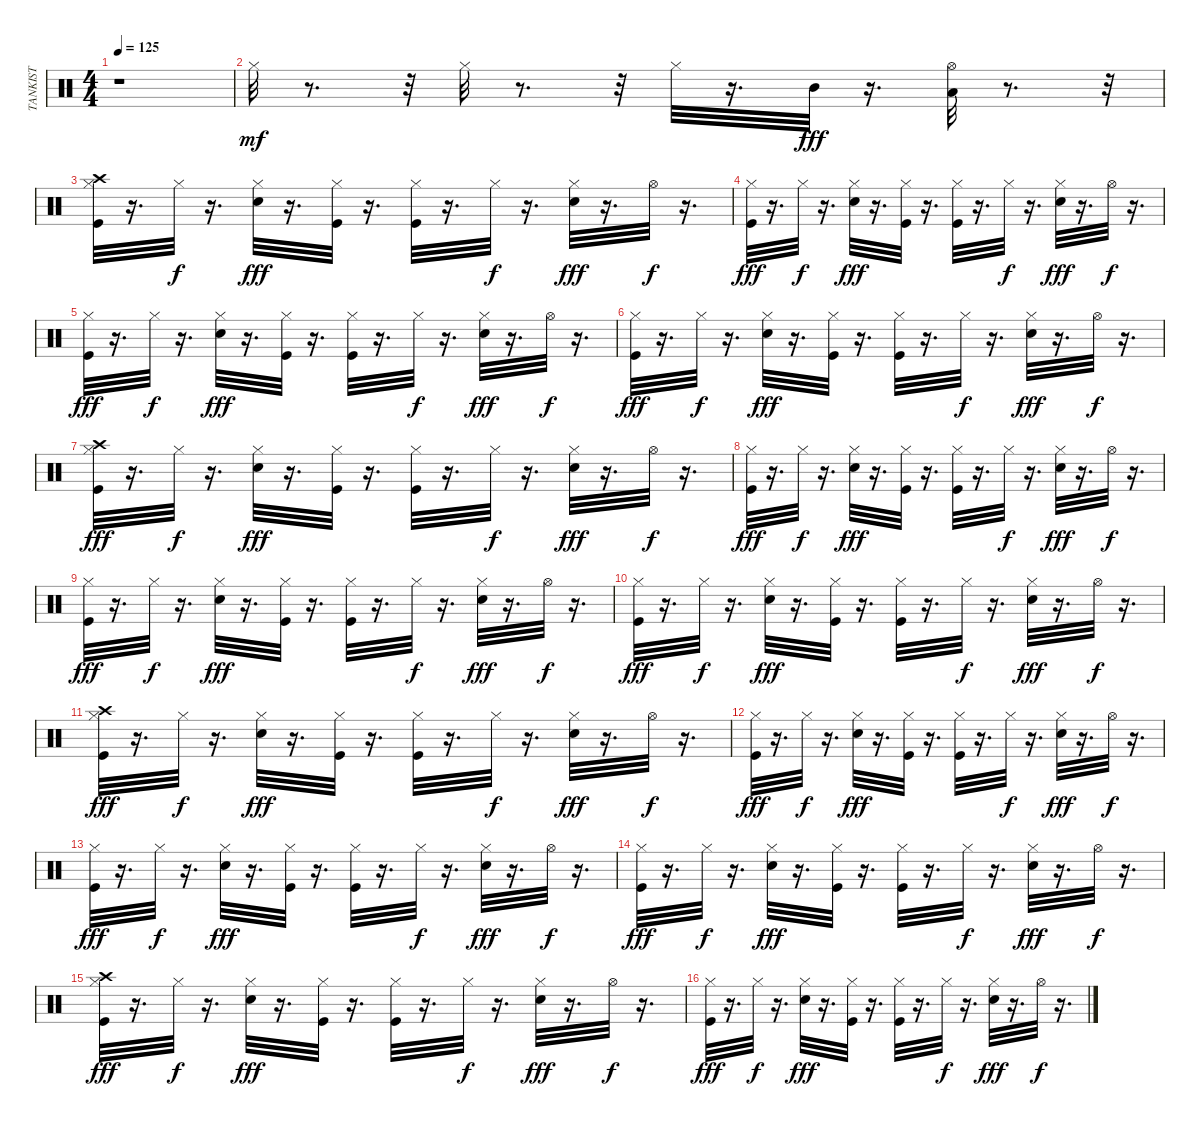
\track ("TANKIST" "TANKIST") {instrument percussion}
\staff {score}
\articulation defaults
\ts (4 4)
\tempo 125
\clef neutral
\ks c
r.1{dy mf} |
"Hi-Hat (closed)".32 r.8{d} r.32 "Hi-Hat (closed)".32 r.8{d} r.32 "Hi-Hat (closed)".32 r.16{d} "Mid Tom (hit)".32{dy fff} r.16{d} ("Hi-Hat (open)" "Low Tom (hit)").32 r.8{d} r.32 |
("Crash high (hit)" "Hi-Hat (closed)" "Kick (hit)").32 r.16{d} "Hi-Hat (closed)".32{dy f} r.16{d} ("Hi-Hat (closed)" "Electric Snare (hit)").32{dy fff} r.16{d} ("Hi-Hat (closed)" "Kick (hit)").32 r.16{d} ("Hi-Hat (closed)" "Kick (hit)").32 r.16{d} "Hi-Hat (closed)".32{dy f} r.16{d} ("Hi-Hat (closed)" "Electric Snare (hit)").32{dy fff} r.16{d} "Hi-Hat (open)".32{dy f} r.16{d} |
("Kick (hit)" "Hi-Hat (closed)").32{dy fff} r.16{d} "Hi-Hat (closed)".32{dy f} r.16{d} ("Electric Snare (hit)" "Hi-Hat (closed)").32{dy fff} r.16{d} ("Kick (hit)" "Hi-Hat (closed)").32 r.16{d} ("Kick (hit)" "Hi-Hat (closed)").32 r.16{d} "Hi-Hat (closed)".32{dy f} r.16{d} ("Electric Snare (hit)" "Hi-Hat (closed)").32{dy fff} r.16{d} "Hi-Hat (open)".32{dy f} r.16{d} |
("Hi-Hat (closed)" "Kick (hit)").32{dy fff} r.16{d} "Hi-Hat (closed)".32{dy f} r.16{d} ("Hi-Hat (closed)" "Electric Snare (hit)").32{dy fff} r.16{d} ("Hi-Hat (closed)" "Kick (hit)").32 r.16{d} ("Hi-Hat (closed)" "Kick (hit)").32 r.16{d} "Hi-Hat (closed)".32{dy f} r.16{d} ("Hi-Hat (closed)" "Electric Snare (hit)").32{dy fff} r.16{d} "Hi-Hat (open)".32{dy f} r.16{d} |
("Kick (hit)" "Hi-Hat (closed)").32{dy fff} r.16{d} "Hi-Hat (closed)".32{dy f} r.16{d} ("Electric Snare (hit)" "Hi-Hat (closed)").32{dy fff} r.16{d} ("Kick (hit)" "Hi-Hat (closed)").32 r.16{d} ("Kick (hit)" "Hi-Hat (closed)").32 r.16{d} "Hi-Hat (closed)".32{dy f} r.16{d} ("Electric Snare (hit)" "Hi-Hat (closed)").32{dy fff} r.16{d} "Hi-Hat (open)".32{dy f} r.16{d} |
("Crash high (hit)" "Hi-Hat (closed)" "Kick (hit)").32{dy fff} r.16{d} "Hi-Hat (closed)".32{dy f} r.16{d} ("Hi-Hat (closed)" "Electric Snare (hit)").32{dy fff} r.16{d} ("Hi-Hat (closed)" "Kick (hit)").32 r.16{d} ("Hi-Hat (closed)" "Kick (hit)").32 r.16{d} "Hi-Hat (closed)".32{dy f} r.16{d} ("Hi-Hat (closed)" "Electric Snare (hit)").32{dy fff} r.16{d} "Hi-Hat (open)".32{dy f} r.16{d} |
("Kick (hit)" "Hi-Hat (closed)").32{dy fff} r.16{d} "Hi-Hat (closed)".32{dy f} r.16{d} ("Electric Snare (hit)" "Hi-Hat (closed)").32{dy fff} r.16{d} ("Kick (hit)" "Hi-Hat (closed)").32 r.16{d} ("Kick (hit)" "Hi-Hat (closed)").32 r.16{d} "Hi-Hat (closed)".32{dy f} r.16{d} ("Electric Snare (hit)" "Hi-Hat (closed)").32{dy fff} r.16{d} "Hi-Hat (open)".32{dy f} r.16{d} |
("Hi-Hat (closed)" "Kick (hit)").32{dy fff} r.16{d} "Hi-Hat (closed)".32{dy f} r.16{d} ("Hi-Hat (closed)" "Electric Snare (hit)").32{dy fff} r.16{d} ("Hi-Hat (closed)" "Kick (hit)").32 r.16{d} ("Hi-Hat (closed)" "Kick (hit)").32 r.16{d} "Hi-Hat (closed)".32{dy f} r.16{d} ("Hi-Hat (closed)" "Electric Snare (hit)").32{dy fff} r.16{d} "Hi-Hat (open)".32{dy f} r.16{d} |
("Kick (hit)" "Hi-Hat (closed)").32{dy fff} r.16{d} "Hi-Hat (closed)".32{dy f} r.16{d} ("Electric Snare (hit)" "Hi-Hat (closed)").32{dy fff} r.16{d} ("Kick (hit)" "Hi-Hat (closed)").32 r.16{d} ("Kick (hit)" "Hi-Hat (closed)").32 r.16{d} "Hi-Hat (closed)".32{dy f} r.16{d} ("Electric Snare (hit)" "Hi-Hat (closed)").32{dy fff} r.16{d} "Hi-Hat (open)".32{dy f} r.16{d} |
("Crash high (hit)" "Hi-Hat (closed)" "Kick (hit)").32{dy fff} r.16{d} "Hi-Hat (closed)".32{dy f} r.16{d} ("Hi-Hat (closed)" "Electric Snare (hit)").32{dy fff} r.16{d} ("Hi-Hat (closed)" "Kick (hit)").32 r.16{d} ("Hi-Hat (closed)" "Kick (hit)").32 r.16{d} "Hi-Hat (closed)".32{dy f} r.16{d} ("Hi-Hat (closed)" "Electric Snare (hit)").32{dy fff} r.16{d} "Hi-Hat (open)".32{dy f} r.16{d} |
("Kick (hit)" "Hi-Hat (closed)").32{dy fff} r.16{d} "Hi-Hat (closed)".32{dy f} r.16{d} ("Electric Snare (hit)" "Hi-Hat (closed)").32{dy fff} r.16{d} ("Kick (hit)" "Hi-Hat (closed)").32 r.16{d} ("Kick (hit)" "Hi-Hat (closed)").32 r.16{d} "Hi-Hat (closed)".32{dy f} r.16{d} ("Electric Snare (hit)" "Hi-Hat (closed)").32{dy fff} r.16{d} "Hi-Hat (open)".32{dy f} r.16{d} |
("Hi-Hat (closed)" "Kick (hit)").32{dy fff} r.16{d} "Hi-Hat (closed)".32{dy f} r.16{d} ("Hi-Hat (closed)" "Electric Snare (hit)").32{dy fff} r.16{d} ("Hi-Hat (closed)" "Kick (hit)").32 r.16{d} ("Hi-Hat (closed)" "Kick (hit)").32 r.16{d} "Hi-Hat (closed)".32{dy f} r.16{d} ("Hi-Hat (closed)" "Electric Snare (hit)").32{dy fff} r.16{d} "Hi-Hat (open)".32{dy f} r.16{d} |
("Kick (hit)" "Hi-Hat (closed)").32{dy fff} r.16{d} "Hi-Hat (closed)".32{dy f} r.16{d} ("Electric Snare (hit)" "Hi-Hat (closed)").32{dy fff} r.16{d} ("Kick (hit)" "Hi-Hat (closed)").32 r.16{d} ("Kick (hit)" "Hi-Hat (closed)").32 r.16{d} "Hi-Hat (closed)".32{dy f} r.16{d} ("Electric Snare (hit)" "Hi-Hat (closed)").32{dy fff} r.16{d} "Hi-Hat (open)".32{dy f} r.16{d} |
("Crash high (hit)" "Hi-Hat (closed)" "Kick (hit)").32{dy fff} r.16{d} "Hi-Hat (closed)".32{dy f} r.16{d} ("Hi-Hat (closed)" "Electric Snare (hit)").32{dy fff} r.16{d} ("Hi-Hat (closed)" "Kick (hit)").32 r.16{d} ("Hi-Hat (closed)" "Kick (hit)").32 r.16{d} "Hi-Hat (closed)".32{dy f} r.16{d} ("Hi-Hat (closed)" "Electric Snare (hit)").32{dy fff} r.16{d} "Hi-Hat (open)".32{dy f} r.16{d} |
("Kick (hit)" "Hi-Hat (closed)").32{dy fff} r.16{d} "Hi-Hat (closed)".32{dy f} r.16{d} ("Electric Snare (hit)" "Hi-Hat (closed)").32{dy fff} r.16{d} ("Kick (hit)" "Hi-Hat (closed)").32 r.16{d} ("Kick (hit)" "Hi-Hat (closed)").32 r.16{d} "Hi-Hat (closed)".32{dy f} r.16{d} ("Electric Snare (hit)" "Hi-Hat (closed)").32{dy fff} r.16{d} "Hi-Hat (open)".32{dy f} r.16{d}
